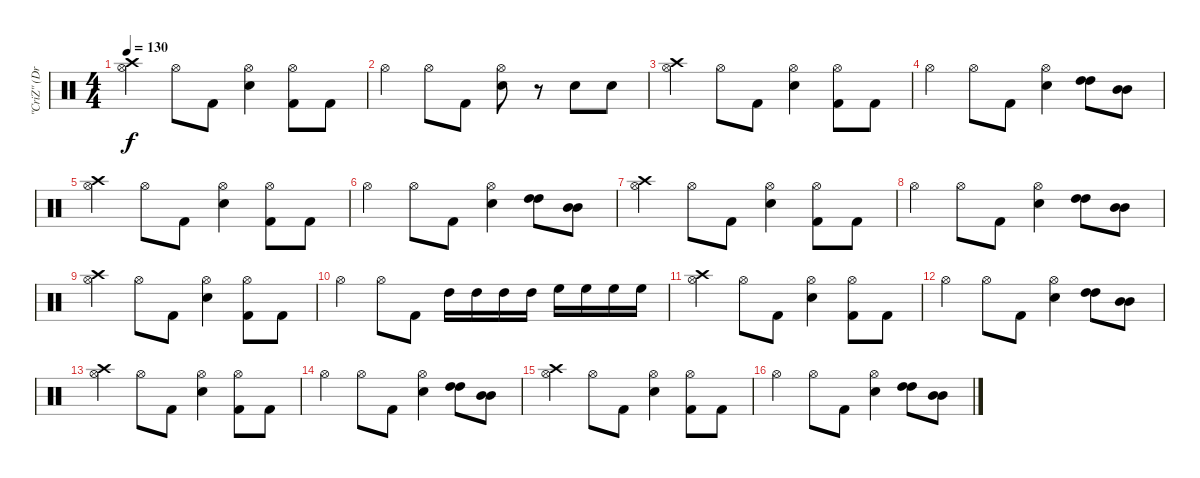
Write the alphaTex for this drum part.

\track ("\"CriZ\" (Drums/Percussion)" "\"CriZ\" (Dr") {instrument percussion}
\staff {score}
\articulation defaults
\ts (4 4)
\tempo 130
\clef neutral
\ks c
("Crash high (hit)" "Hi-Hat (open)").4{dy f} "Hi-Hat (open)".8 "Kick (hit) 2".8 ("Hi-Hat (open)" "Snare (hit) 2").4 ("Hi-Hat (open)" "Kick (hit) 2").8 "Kick (hit) 2".8 |
"Hi-Hat (open)".4 "Hi-Hat (open)".8 "Kick (hit) 2".8 ("Hi-Hat (open)" "Snare (hit) 2").8 r.8 "Snare (hit) 2".8 "Snare (hit) 2".8 |
("Crash high (hit)" "Hi-Hat (open)").4 "Hi-Hat (open)".8 "Kick (hit) 2".8 ("Hi-Hat (open)" "Snare (hit) 2").4 ("Hi-Hat (open)" "Kick (hit) 2").8 "Kick (hit) 2".8 |
"Hi-Hat (open)".4 "Hi-Hat (open)".8 "Kick (hit) 2".8 ("Hi-Hat (open)" "Snare (hit) 2").4 ("High Tom (hit)" "High Tom (hit)").8 ("Mid Tom (hit)" "Mid Tom (hit)").8 |
("Crash high (hit)" "Hi-Hat (open)").4 "Hi-Hat (open)".8 "Kick (hit) 2".8 ("Hi-Hat (open)" "Snare (hit) 2").4 ("Hi-Hat (open)" "Kick (hit) 2").8 "Kick (hit) 2".8 |
"Hi-Hat (open)".4 "Hi-Hat (open)".8 "Kick (hit) 2".8 ("Hi-Hat (open)" "Snare (hit) 2").4 ("High Tom (hit)" "High Tom (hit)").8 ("Mid Tom (hit)" "Mid Tom (hit)").8 |
("Crash high (hit)" "Hi-Hat (open)").4 "Hi-Hat (open)".8 "Kick (hit) 2".8 ("Hi-Hat (open)" "Snare (hit) 2").4 ("Hi-Hat (open)" "Kick (hit) 2").8 "Kick (hit) 2".8 |
"Hi-Hat (open)".4 "Hi-Hat (open)".8 "Kick (hit) 2".8 ("Hi-Hat (open)" "Snare (hit) 2").4 ("High Tom (hit)" "High Tom (hit)").8 ("Mid Tom (hit)" "Mid Tom (hit)").8 |
("Crash high (hit)" "Hi-Hat (open)").4 "Hi-Hat (open)".8 "Kick (hit) 2".8 ("Hi-Hat (open)" "Snare (hit) 2").4 ("Hi-Hat (open)" "Kick (hit) 2").8 "Kick (hit) 2".8 |
"Hi-Hat (open)".4 "Hi-Hat (open)".8 "Kick (hit) 2".8 "High Tom (hit)".16 "High Tom (hit)".16 "High Tom (hit)".16 "High Tom (hit)".16 "High Floor Tom (hit)".16 "High Floor Tom (hit)".16 "High Floor Tom (hit)".16 "High Floor Tom (hit)".16 |
("Crash high (hit)" "Hi-Hat (open)").4 "Hi-Hat (open)".8 "Kick (hit) 2".8 ("Hi-Hat (open)" "Snare (hit) 2").4 ("Hi-Hat (open)" "Kick (hit) 2").8 "Kick (hit) 2".8 |
"Hi-Hat (open)".4 "Hi-Hat (open)".8 "Kick (hit) 2".8 ("Hi-Hat (open)" "Snare (hit) 2").4 ("High Tom (hit)" "High Tom (hit)").8 ("Mid Tom (hit)" "Mid Tom (hit)").8 |
("Crash high (hit)" "Hi-Hat (open)").4 "Hi-Hat (open)".8 "Kick (hit) 2".8 ("Hi-Hat (open)" "Snare (hit) 2").4 ("Hi-Hat (open)" "Kick (hit) 2").8 "Kick (hit) 2".8 |
"Hi-Hat (open)".4 "Hi-Hat (open)".8 "Kick (hit) 2".8 ("Hi-Hat (open)" "Snare (hit) 2").4 ("High Tom (hit)" "High Tom (hit)").8 ("Mid Tom (hit)" "Mid Tom (hit)").8 |
("Crash high (hit)" "Hi-Hat (open)").4 "Hi-Hat (open)".8 "Kick (hit) 2".8 ("Hi-Hat (open)" "Snare (hit) 2").4 ("Hi-Hat (open)" "Kick (hit) 2").8 "Kick (hit) 2".8 |
"Hi-Hat (open)".4 "Hi-Hat (open)".8 "Kick (hit) 2".8 ("Hi-Hat (open)" "Snare (hit) 2").4 ("High Tom (hit)" "High Tom (hit)").8 ("Mid Tom (hit)" "Mid Tom (hit)").8
